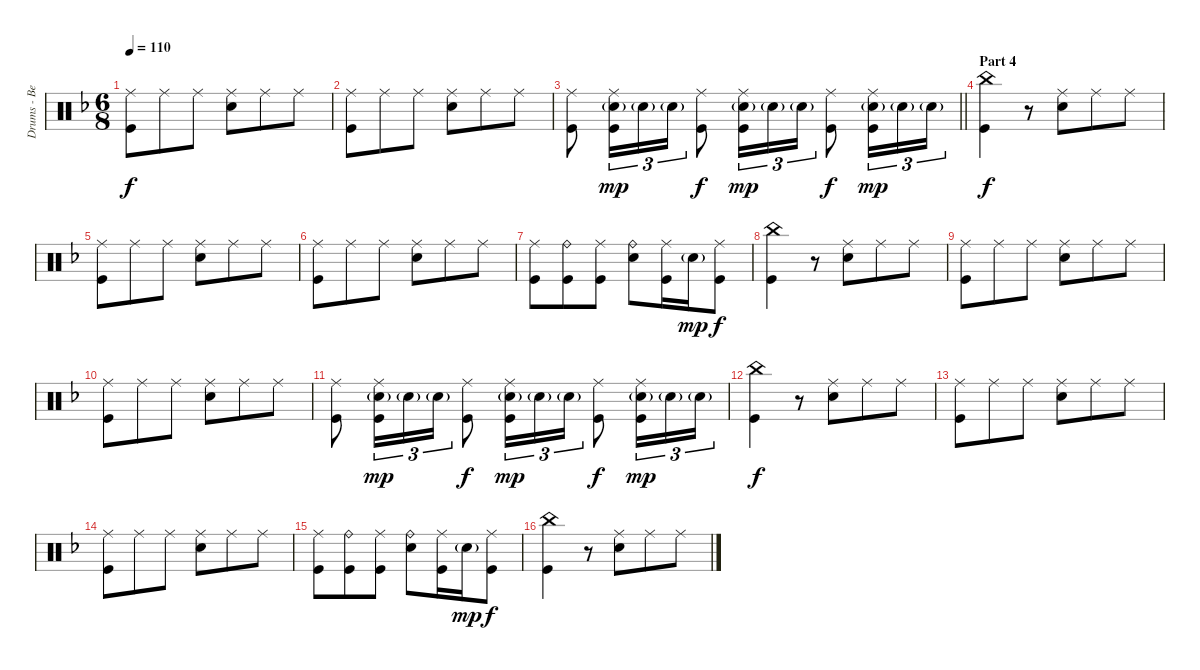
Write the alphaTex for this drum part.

\track ("Drums - Ben Johnston" "Drums - Be") {instrument percussion}
\staff {score}
\articulation defaults
\ts (6 8)
\tempo 110
\clef neutral
\ks dminor
("Ride (middle)" "Kick (hit)").8{dy f} "Ride (middle)".8 "Ride (middle)".8 ("Ride (middle)" "Snare (hit) 2").8 "Ride (middle)".8 "Ride (middle)".8 |
("Ride (middle)" "Kick (hit)").8 "Ride (middle)".8 "Ride (middle)".8 ("Ride (middle)" "Snare (hit) 2").8 "Ride (middle)".8 "Ride (middle)".8 |
\barLineRight lightlight
("Ride (middle)" "Kick (hit)").8 ("Ride (middle)" "Snare (hit) 2"{g} "Kick (hit)").16{tu (3 2) dy mp} "Snare (hit) 2"{g}.16{tu (3 2)} "Snare (hit) 2"{g}.16{tu (3 2)} ("Ride (middle)" "Kick (hit)").8{dy f} ("Ride (middle)" "Snare (hit) 2"{g} "Kick (hit)").16{tu (3 2) dy mp} "Snare (hit) 2"{g}.16{tu (3 2)} "Snare (hit) 2"{g}.16{tu (3 2)} ("Ride (middle)" "Kick (hit)").8{dy f} ("Ride (middle)" "Snare (hit) 2"{g} "Kick (hit)").16{tu (3 2) dy mp} "Snare (hit) 2"{g}.16{tu (3 2)} "Snare (hit) 2"{g}.16{tu (3 2)} |
\section ("" "Part 4")
("China (hit)" "Kick (hit)").4{dy f} r.8 ("Ride (middle)" "Snare (hit) 2").8 "Ride (middle)".8 "Ride (middle)".8 |
("Ride (middle)" "Kick (hit)").8 "Ride (middle)".8 "Ride (middle)".8 ("Ride (middle)" "Snare (hit) 2").8 "Ride (middle)".8 "Ride (middle)".8 |
("Ride (middle)" "Kick (hit)").8 "Ride (middle)".8 "Ride (middle)".8 ("Ride (middle)" "Snare (hit) 2").8 "Ride (middle)".8 "Ride (middle)".8 |
("Ride (middle)" "Kick (hit)").8 ("Ride (bell)" "Kick (hit)").8 ("Ride (middle)" "Kick (hit)").8 ("Ride (bell)" "Snare (hit) 2").8 ("Ride (middle)" "Kick (hit)").16 "Snare (hit) 2"{g}.16{dy mp} ("Ride (middle)" "Kick (hit)").8{dy f} |
("China (hit)" "Kick (hit)").4 r.8 ("Ride (middle)" "Snare (hit) 2").8 "Ride (middle)".8 "Ride (middle)".8 |
("Ride (middle)" "Kick (hit)").8 "Ride (middle)".8 "Ride (middle)".8 ("Ride (middle)" "Snare (hit) 2").8 "Ride (middle)".8 "Ride (middle)".8 |
("Ride (middle)" "Kick (hit)").8 "Ride (middle)".8 "Ride (middle)".8 ("Ride (middle)" "Snare (hit) 2").8 "Ride (middle)".8 "Ride (middle)".8 |
("Ride (middle)" "Kick (hit)").8 ("Ride (middle)" "Snare (hit) 2"{g} "Kick (hit)").16{tu (3 2) dy mp} "Snare (hit) 2"{g}.16{tu (3 2)} "Snare (hit) 2"{g}.16{tu (3 2)} ("Ride (middle)" "Kick (hit)").8{dy f} ("Ride (middle)" "Snare (hit) 2"{g} "Kick (hit)").16{tu (3 2) dy mp} "Snare (hit) 2"{g}.16{tu (3 2)} "Snare (hit) 2"{g}.16{tu (3 2)} ("Ride (middle)" "Kick (hit)").8{dy f} ("Ride (middle)" "Snare (hit) 2"{g} "Kick (hit)").16{tu (3 2) dy mp} "Snare (hit) 2"{g}.16{tu (3 2)} "Snare (hit) 2"{g}.16{tu (3 2)} |
("China (hit)" "Kick (hit)").4{dy f} r.8 ("Ride (middle)" "Snare (hit) 2").8 "Ride (middle)".8 "Ride (middle)".8 |
("Ride (middle)" "Kick (hit)").8 "Ride (middle)".8 "Ride (middle)".8 ("Ride (middle)" "Snare (hit) 2").8 "Ride (middle)".8 "Ride (middle)".8 |
("Ride (middle)" "Kick (hit)").8 "Ride (middle)".8 "Ride (middle)".8 ("Ride (middle)" "Snare (hit) 2").8 "Ride (middle)".8 "Ride (middle)".8 |
("Ride (middle)" "Kick (hit)").8 ("Ride (bell)" "Kick (hit)").8 ("Ride (middle)" "Kick (hit)").8 ("Ride (bell)" "Snare (hit) 2").8 ("Ride (middle)" "Kick (hit)").16 "Snare (hit) 2"{g}.16{dy mp} ("Ride (middle)" "Kick (hit)").8{dy f} |
("China (hit)" "Kick (hit)").4 r.8 ("Ride (middle)" "Snare (hit) 2").8 "Ride (middle)".8 "Ride (middle)".8
